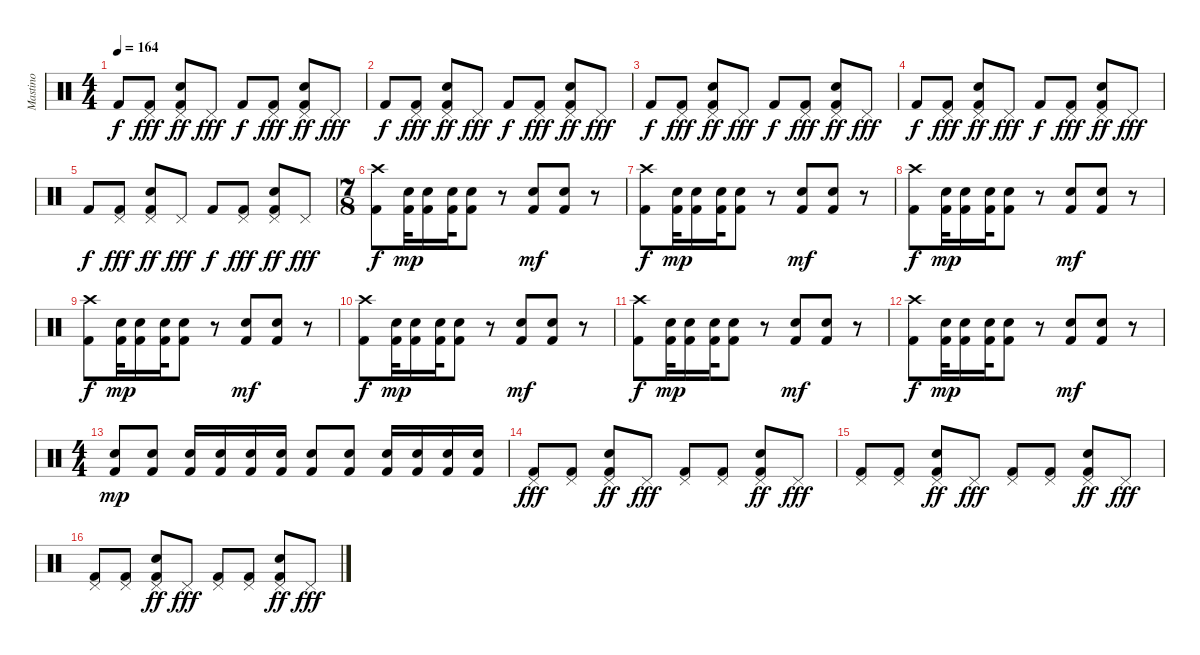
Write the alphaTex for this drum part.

\track ("Mastino" "Mastino") {instrument percussion}
\staff {score}
\articulation defaults
\ts (4 4)
\tempo 164
\clef neutral
\ks c "Kick (hit) 2".8{dy f}
("Pedal Hi-Hat (hit)" "Kick (hit) 2").8{dy fff} ("Pedal Hi-Hat (hit)" "Electric Snare (hit)" "Kick (hit) 2").8{dy ff} "Pedal Hi-Hat (hit)".8{dy fff} "Kick (hit) 2".8{dy f} ("Pedal Hi-Hat (hit)" "Kick (hit) 2").8{dy fff} ("Pedal Hi-Hat (hit)" "Electric Snare (hit)" "Kick (hit) 2").8{dy ff} "Pedal Hi-Hat (hit)".8{dy fff} |
"Kick (hit) 2".8{dy f} ("Pedal Hi-Hat (hit)" "Kick (hit) 2").8{dy fff} ("Pedal Hi-Hat (hit)" "Electric Snare (hit)" "Kick (hit) 2").8{dy ff} "Pedal Hi-Hat (hit)".8{dy fff} "Kick (hit) 2".8{dy f} ("Pedal Hi-Hat (hit)" "Kick (hit) 2").8{dy fff} ("Pedal Hi-Hat (hit)" "Electric Snare (hit)" "Kick (hit) 2").8{dy ff} "Pedal Hi-Hat (hit)".8{dy fff} |
"Kick (hit) 2".8{dy f} ("Pedal Hi-Hat (hit)" "Kick (hit) 2").8{dy fff} ("Pedal Hi-Hat (hit)" "Electric Snare (hit)" "Kick (hit) 2").8{dy ff} "Pedal Hi-Hat (hit)".8{dy fff} "Kick (hit) 2".8{dy f} ("Pedal Hi-Hat (hit)" "Kick (hit) 2").8{dy fff} ("Pedal Hi-Hat (hit)" "Electric Snare (hit)" "Kick (hit) 2").8{dy ff} "Pedal Hi-Hat (hit)".8{dy fff} |
"Kick (hit) 2".8{dy f} ("Pedal Hi-Hat (hit)" "Kick (hit) 2").8{dy fff} ("Pedal Hi-Hat (hit)" "Electric Snare (hit)" "Kick (hit) 2").8{dy ff} "Pedal Hi-Hat (hit)".8{dy fff} "Kick (hit) 2".8{dy f} ("Pedal Hi-Hat (hit)" "Kick (hit) 2").8{dy fff} ("Pedal Hi-Hat (hit)" "Electric Snare (hit)" "Kick (hit) 2").8{dy ff} "Pedal Hi-Hat (hit)".8{dy fff} |
"Kick (hit) 2".8{dy f} ("Pedal Hi-Hat (hit)" "Kick (hit) 2").8{dy fff} ("Pedal Hi-Hat (hit)" "Electric Snare (hit)" "Kick (hit) 2").8{dy ff} "Pedal Hi-Hat (hit)".8{dy fff} "Kick (hit) 2".8{dy f} ("Pedal Hi-Hat (hit)" "Kick (hit) 2").8{dy fff} ("Pedal Hi-Hat (hit)" "Electric Snare (hit)" "Kick (hit) 2").8{dy ff} "Pedal Hi-Hat (hit)".8{dy fff} |
\ts (7 8)
("Crash high (hit)" "Kick (hit) 2").8{dy f} ("Electric Snare (hit)" "Kick (hit) 2").32{dy mp} ("Electric Snare (hit)" "Kick (hit) 2").16 ("Electric Snare (hit)" "Kick (hit) 2").32 ("Electric Snare (hit)" "Kick (hit) 2").8 r.8 ("Electric Snare (hit)" "Kick (hit) 2").8{dy mf} ("Electric Snare (hit)" "Kick (hit) 2").8 r.8 |
("Crash high (hit)" "Kick (hit) 2").8{dy f} ("Electric Snare (hit)" "Kick (hit) 2").32{dy mp} ("Electric Snare (hit)" "Kick (hit) 2").16 ("Electric Snare (hit)" "Kick (hit) 2").32 ("Electric Snare (hit)" "Kick (hit) 2").8 r.8 ("Electric Snare (hit)" "Kick (hit) 2").8{dy mf} ("Electric Snare (hit)" "Kick (hit) 2").8 r.8 |
("Crash high (hit)" "Kick (hit) 2").8{dy f} ("Electric Snare (hit)" "Kick (hit) 2").32{dy mp} ("Electric Snare (hit)" "Kick (hit) 2").16 ("Electric Snare (hit)" "Kick (hit) 2").32 ("Electric Snare (hit)" "Kick (hit) 2").8 r.8 ("Electric Snare (hit)" "Kick (hit) 2").8{dy mf} ("Electric Snare (hit)" "Kick (hit) 2").8 r.8 |
("Crash high (hit)" "Kick (hit) 2").8{dy f} ("Electric Snare (hit)" "Kick (hit) 2").32{dy mp} ("Electric Snare (hit)" "Kick (hit) 2").16 ("Electric Snare (hit)" "Kick (hit) 2").32 ("Electric Snare (hit)" "Kick (hit) 2").8 r.8 ("Electric Snare (hit)" "Kick (hit) 2").8{dy mf} ("Electric Snare (hit)" "Kick (hit) 2").8 r.8 |
("Crash high (hit)" "Kick (hit) 2").8{dy f} ("Electric Snare (hit)" "Kick (hit) 2").32{dy mp} ("Electric Snare (hit)" "Kick (hit) 2").16 ("Electric Snare (hit)" "Kick (hit) 2").32 ("Electric Snare (hit)" "Kick (hit) 2").8 r.8 ("Electric Snare (hit)" "Kick (hit) 2").8{dy mf} ("Electric Snare (hit)" "Kick (hit) 2").8 r.8 |
("Crash high (hit)" "Kick (hit) 2").8{dy f} ("Electric Snare (hit)" "Kick (hit) 2").32{dy mp} ("Electric Snare (hit)" "Kick (hit) 2").16 ("Electric Snare (hit)" "Kick (hit) 2").32 ("Electric Snare (hit)" "Kick (hit) 2").8 r.8 ("Electric Snare (hit)" "Kick (hit) 2").8{dy mf} ("Electric Snare (hit)" "Kick (hit) 2").8 r.8 |
("Crash high (hit)" "Kick (hit) 2").8{dy f} ("Electric Snare (hit)" "Kick (hit) 2").32{dy mp} ("Electric Snare (hit)" "Kick (hit) 2").16 ("Electric Snare (hit)" "Kick (hit) 2").32 ("Electric Snare (hit)" "Kick (hit) 2").8 r.8 ("Electric Snare (hit)" "Kick (hit) 2").8{dy mf} ("Electric Snare (hit)" "Kick (hit) 2").8 r.8 |
\ts (4 4)
("Electric Snare (hit)" "Kick (hit) 2").8{dy mp} ("Electric Snare (hit)" "Kick (hit) 2").8 ("Electric Snare (hit)" "Kick (hit) 2").16 ("Electric Snare (hit)" "Kick (hit) 2").16 ("Electric Snare (hit)" "Kick (hit) 2").16 ("Electric Snare (hit)" "Kick (hit) 2").16 ("Electric Snare (hit)" "Kick (hit) 2").8 ("Electric Snare (hit)" "Kick (hit) 2").8 ("Electric Snare (hit)" "Kick (hit) 2").16 ("Electric Snare (hit)" "Kick (hit) 2").16 ("Electric Snare (hit)" "Kick (hit) 2").16 ("Electric Snare (hit)" "Kick (hit) 2").16 |
("Pedal Hi-Hat (hit)" "Kick (hit) 2").8{dy fff} ("Pedal Hi-Hat (hit)" "Kick (hit) 2").8 ("Pedal Hi-Hat (hit)" "Electric Snare (hit)" "Kick (hit) 2").8{dy ff} "Pedal Hi-Hat (hit)".8{dy fff} ("Pedal Hi-Hat (hit)" "Kick (hit) 2").8 ("Pedal Hi-Hat (hit)" "Kick (hit) 2").8 ("Pedal Hi-Hat (hit)" "Electric Snare (hit)" "Kick (hit) 2").8{dy ff} "Pedal Hi-Hat (hit)".8{dy fff} |
("Pedal Hi-Hat (hit)" "Kick (hit) 2").8 ("Pedal Hi-Hat (hit)" "Kick (hit) 2").8 ("Pedal Hi-Hat (hit)" "Electric Snare (hit)" "Kick (hit) 2").8{dy ff} "Pedal Hi-Hat (hit)".8{dy fff} ("Pedal Hi-Hat (hit)" "Kick (hit) 2").8 ("Pedal Hi-Hat (hit)" "Kick (hit) 2").8 ("Pedal Hi-Hat (hit)" "Electric Snare (hit)" "Kick (hit) 2").8{dy ff} "Pedal Hi-Hat (hit)".8{dy fff} |
("Pedal Hi-Hat (hit)" "Kick (hit) 2").8 ("Pedal Hi-Hat (hit)" "Kick (hit) 2").8 ("Pedal Hi-Hat (hit)" "Electric Snare (hit)" "Kick (hit) 2").8{dy ff} "Pedal Hi-Hat (hit)".8{dy fff} ("Pedal Hi-Hat (hit)" "Kick (hit) 2").8 ("Pedal Hi-Hat (hit)" "Kick (hit) 2").8 ("Pedal Hi-Hat (hit)" "Electric Snare (hit)" "Kick (hit) 2").8{dy ff} "Pedal Hi-Hat (hit)".8{dy fff}
